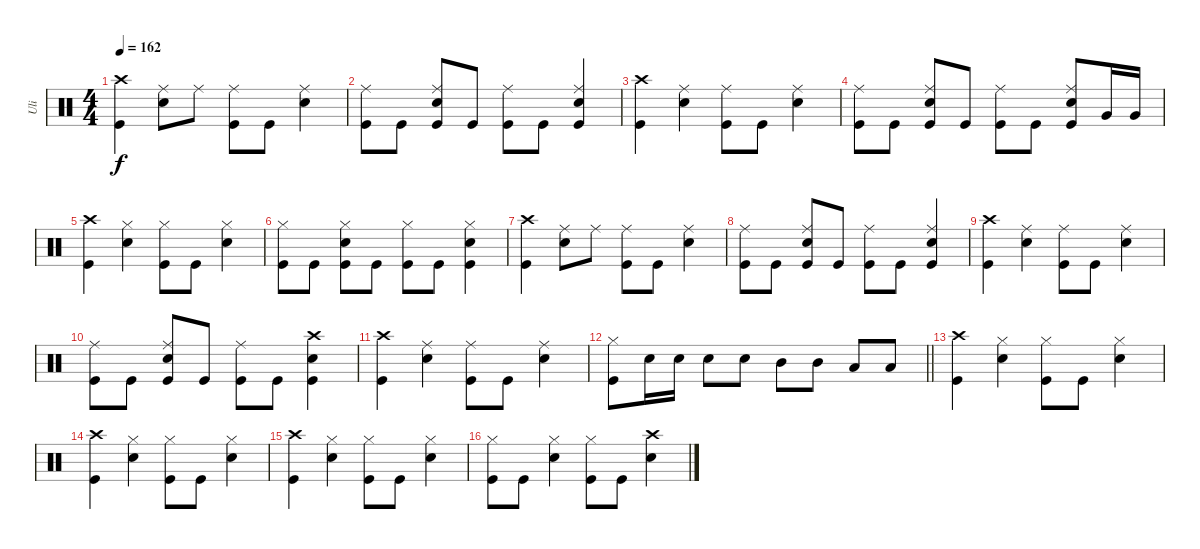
\track ("Uli" "Uli") {instrument percussion}
\staff {score}
\articulation defaults
\ts (4 4)
\tempo 162
\clef neutral
\ks aminor
("Crash high (hit)" "Kick (hit)").4{dy f} ("Ride (middle)" "Snare (hit) 2").8 "Ride (middle)".8 ("Ride (middle)" "Kick (hit)").8 "Kick (hit)".8 ("Ride (middle)" "Snare (hit) 2").4 |
("Ride (middle)" "Kick (hit)").8 "Kick (hit)".8 ("Ride (middle)" "Snare (hit) 2" "Kick (hit)").8 "Kick (hit)".8 ("Ride (middle)" "Kick (hit)").8 "Kick (hit)".8 ("Ride (middle)" "Snare (hit) 2" "Kick (hit)").4 |
("Crash high (hit)" "Kick (hit)").4 ("Ride (middle)" "Snare (hit) 2").4 ("Ride (middle)" "Kick (hit)").8 "Kick (hit)".8 ("Ride (middle)" "Snare (hit) 2").4 |
("Ride (middle)" "Kick (hit)").8 "Kick (hit)".8 ("Ride (middle)" "Snare (hit) 2" "Kick (hit)").8 "Kick (hit)".8 ("Ride (middle)" "Kick (hit)").8 "Kick (hit)".8 ("Ride (middle)" "Snare (hit) 2" "Kick (hit)").8 "Very Low Tom (hit)".16 "Very Low Tom (hit)".16 |
("Crash high (hit)" "Kick (hit)").4 ("Hi-Hat (closed)" "Snare (hit) 2").4 ("Hi-Hat (closed)" "Kick (hit)").8 "Kick (hit)".8 ("Hi-Hat (closed)" "Snare (hit) 2").4 |
("Hi-Hat (closed)" "Kick (hit)").8 "Kick (hit)".8 ("Hi-Hat (closed)" "Snare (hit) 2" "Kick (hit)").8 "Kick (hit)".8 ("Hi-Hat (closed)" "Kick (hit)").8 "Kick (hit)".8 ("Hi-Hat (closed)" "Snare (hit) 2" "Kick (hit)").4 |
("Crash high (hit)" "Kick (hit)").4 ("Ride (middle)" "Snare (hit) 2").8 "Ride (middle)".8 ("Ride (middle)" "Kick (hit)").8 "Kick (hit)".8 ("Ride (middle)" "Snare (hit) 2").4 |
("Ride (middle)" "Kick (hit)").8 "Kick (hit)".8 ("Ride (middle)" "Snare (hit) 2" "Kick (hit)").8 "Kick (hit)".8 ("Ride (middle)" "Kick (hit)").8 "Kick (hit)".8 ("Ride (middle)" "Snare (hit) 2" "Kick (hit)").4 |
("Crash high (hit)" "Kick (hit)").4 ("Ride (middle)" "Snare (hit) 2").4 ("Ride (middle)" "Kick (hit)").8 "Kick (hit)".8 ("Ride (middle)" "Snare (hit) 2").4 |
("Ride (middle)" "Kick (hit)").8 "Kick (hit)".8 ("Ride (middle)" "Snare (hit) 2" "Kick (hit)").8 "Kick (hit)".8 ("Ride (middle)" "Kick (hit)").8 "Kick (hit)".8 ("Crash high (hit)" "Snare (hit) 2" "Kick (hit)").4 |
("Crash high (hit)" "Kick (hit)").4 ("Ride (middle)" "Snare (hit) 2").4 ("Ride (middle)" "Kick (hit)").8 "Kick (hit)".8 ("Ride (middle)" "Snare (hit) 2").4 |
\barLineRight lightlight
("Hi-Hat (closed)" "Kick (hit)").8 "Snare (hit) 2".16 "Snare (hit) 2".16 "Snare (hit) 2".8 "Snare (hit) 2".8 "Mid Tom (hit)".8 "Mid Tom (hit)".8 "Low Tom (hit)".8 "Low Tom (hit)".8 |
("Crash high (hit)" "Kick (hit)").4 ("Hi-Hat (closed)" "Snare (hit) 2").4 ("Hi-Hat (closed)" "Kick (hit)").8 "Kick (hit)".8 ("Hi-Hat (closed)" "Snare (hit) 2").4 |
("Crash high (hit)" "Kick (hit)").4 ("Hi-Hat (closed)" "Snare (hit) 2").4 ("Hi-Hat (closed)" "Kick (hit)").8 "Kick (hit)".8 ("Hi-Hat (closed)" "Snare (hit) 2").4 |
("Crash high (hit)" "Kick (hit)").4 ("Hi-Hat (closed)" "Snare (hit) 2").4 ("Hi-Hat (closed)" "Kick (hit)").8 "Kick (hit)".8 ("Hi-Hat (closed)" "Snare (hit) 2").4 |
("Hi-Hat (closed)" "Kick (hit)").8 "Kick (hit)".8 ("Hi-Hat (closed)" "Snare (hit) 2").4 ("Hi-Hat (closed)" "Kick (hit)").8 "Kick (hit)".8 ("Crash high (hit)" "Snare (hit) 2").4
